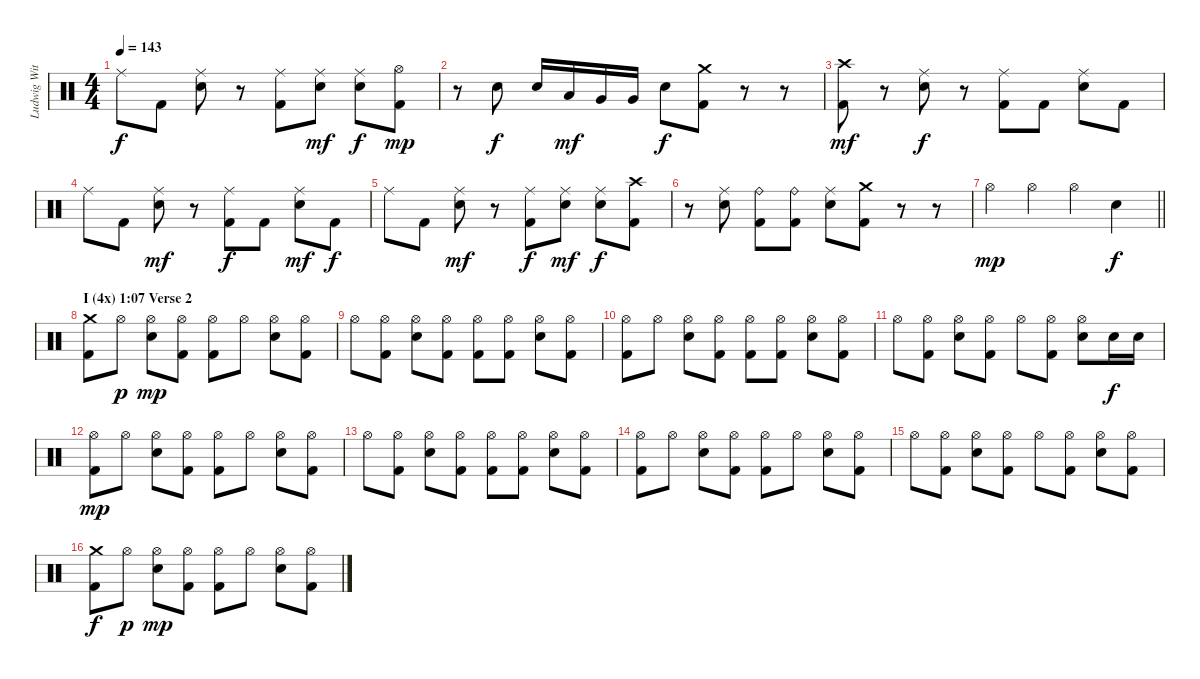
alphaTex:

\track ("Ludwig Witt (Drums)" "Ludwig Wit") {instrument percussion}
\staff {score}
\articulation defaults
\ts (4 4)
\tempo 143
\clef neutral
\ks c "Ride (middle)".8{dy f} "Kick (hit) 2".8
("Ride (middle)" "Electric Snare (hit)").8 r.8 ("Ride (middle)" "Kick (hit) 2").8 ("Ride (middle)" "Electric Snare (hit)").8{dy mf} ("Ride (middle)" "Electric Snare (hit)").8{dy f} ("Hi-Hat (open)" "Kick (hit) 2").8{dy mp} |
r.8 "Electric Snare (hit)".8{dy f} "Electric Snare (hit)".16 "Low Tom (hit)".16{dy mf} "Very Low Tom (hit)".16 "Very Low Tom (hit)".16 "Electric Snare (hit)".8{dy f} ("Crash medium (hit)" "Kick (hit) 2").8 r.8 r.8 |
("Crash high (hit)" "Kick (hit) 2").8{dy mf} r.8 ("Ride (middle)" "Electric Snare (hit)").8{dy f} r.8 ("Ride (middle)" "Kick (hit) 2").8 "Kick (hit) 2".8 ("Ride (middle)" "Electric Snare (hit)").8 "Kick (hit) 2".8 |
"Ride (middle)".8 "Kick (hit) 2".8 ("Ride (middle)" "Electric Snare (hit)").8{dy mf} r.8 ("Ride (middle)" "Kick (hit) 2").8{dy f} "Kick (hit) 2".8 ("Ride (middle)" "Electric Snare (hit)").8{dy mf} "Kick (hit) 2".8{dy f} |
"Ride (middle)".8 "Kick (hit) 2".8 ("Ride (middle)" "Electric Snare (hit)").8{dy mf} r.8 ("Ride (middle)" "Kick (hit) 2").8{dy f} ("Ride (middle)" "Electric Snare (hit)").8{dy mf} ("Ride (middle)" "Electric Snare (hit)").8{dy f} ("Crash high (hit)" "Kick (hit) 2").8 |
r.8 ("Ride (middle)" "Electric Snare (hit)").8 ("Ride (bell)" "Kick (hit) 2").8 ("Ride (bell)" "Kick (hit) 2").8 ("Ride (middle)" "Electric Snare (hit)").8 ("Crash medium (hit)" "Kick (hit) 2").8 r.8 r.8 |
\barLineRight lightlight "Hi-Hat (open)".4{dy mp} "Hi-Hat (open)".4 "Hi-Hat (open)".4 "Electric Snare (hit)".4{dy f}
|
\section ("" "I (4x) 1:07 Verse 2")
("Crash medium (hit)" "Kick (hit) 2").8 "Hi-Hat (open)".8{dy p} ("Hi-Hat (open)" "Electric Snare (hit)").8{dy mp} ("Hi-Hat (open)" "Kick (hit) 2").8 ("Hi-Hat (open)" "Kick (hit) 2").8 "Hi-Hat (open)".8 ("Hi-Hat (open)" "Electric Snare (hit)").8 ("Hi-Hat (open)" "Kick (hit) 2").8 |
"Hi-Hat (open)".8 ("Hi-Hat (open)" "Kick (hit) 2").8 ("Hi-Hat (open)" "Electric Snare (hit)").8 ("Hi-Hat (open)" "Kick (hit) 2").8 ("Hi-Hat (open)" "Kick (hit) 2").8 ("Hi-Hat (open)" "Kick (hit) 2").8 ("Hi-Hat (open)" "Electric Snare (hit)").8 ("Hi-Hat (open)" "Kick (hit) 2").8 |
("Hi-Hat (open)" "Kick (hit) 2").8 "Hi-Hat (open)".8 ("Hi-Hat (open)" "Electric Snare (hit)").8 ("Hi-Hat (open)" "Kick (hit) 2").8 ("Hi-Hat (open)" "Kick (hit) 2").8 ("Hi-Hat (open)" "Kick (hit) 2").8 ("Hi-Hat (open)" "Electric Snare (hit)").8 ("Hi-Hat (open)" "Kick (hit) 2").8 |
"Hi-Hat (open)".8 ("Hi-Hat (open)" "Kick (hit) 2").8 ("Hi-Hat (open)" "Electric Snare (hit)").8 ("Hi-Hat (open)" "Kick (hit) 2").8 "Hi-Hat (open)".8 ("Hi-Hat (open)" "Kick (hit) 2").8 ("Hi-Hat (open)" "Electric Snare (hit)").8 "Electric Snare (hit)".16{dy f} "Electric Snare (hit)".16 |
("Hi-Hat (open)" "Kick (hit) 2").8{dy mp} "Hi-Hat (open)".8 ("Hi-Hat (open)" "Electric Snare (hit)").8 ("Hi-Hat (open)" "Kick (hit) 2").8 ("Hi-Hat (open)" "Kick (hit) 2").8 "Hi-Hat (open)".8 ("Hi-Hat (open)" "Electric Snare (hit)").8 ("Hi-Hat (open)" "Kick (hit) 2").8 |
"Hi-Hat (open)".8 ("Hi-Hat (open)" "Kick (hit) 2").8 ("Hi-Hat (open)" "Electric Snare (hit)").8 ("Hi-Hat (open)" "Kick (hit) 2").8 ("Hi-Hat (open)" "Kick (hit) 2").8 ("Hi-Hat (open)" "Kick (hit) 2").8 ("Hi-Hat (open)" "Electric Snare (hit)").8 ("Hi-Hat (open)" "Kick (hit) 2").8 |
("Hi-Hat (open)" "Kick (hit) 2").8 "Hi-Hat (open)".8 ("Hi-Hat (open)" "Electric Snare (hit)").8 ("Hi-Hat (open)" "Kick (hit) 2").8 ("Hi-Hat (open)" "Kick (hit) 2").8 "Hi-Hat (open)".8 ("Hi-Hat (open)" "Electric Snare (hit)").8 ("Hi-Hat (open)" "Kick (hit) 2").8 |
"Hi-Hat (open)".8 ("Hi-Hat (open)" "Kick (hit) 2").8 ("Hi-Hat (open)" "Electric Snare (hit)").8 ("Hi-Hat (open)" "Kick (hit) 2").8 "Hi-Hat (open)".8 ("Hi-Hat (open)" "Kick (hit) 2").8 ("Hi-Hat (open)" "Electric Snare (hit)").8 ("Hi-Hat (open)" "Kick (hit) 2").8 |
("Crash medium (hit)" "Kick (hit) 2").8{dy f} "Hi-Hat (open)".8{dy p} ("Hi-Hat (open)" "Electric Snare (hit)").8{dy mp} ("Hi-Hat (open)" "Kick (hit) 2").8 ("Hi-Hat (open)" "Kick (hit) 2").8 "Hi-Hat (open)".8 ("Hi-Hat (open)" "Electric Snare (hit)").8 ("Hi-Hat (open)" "Kick (hit) 2").8
